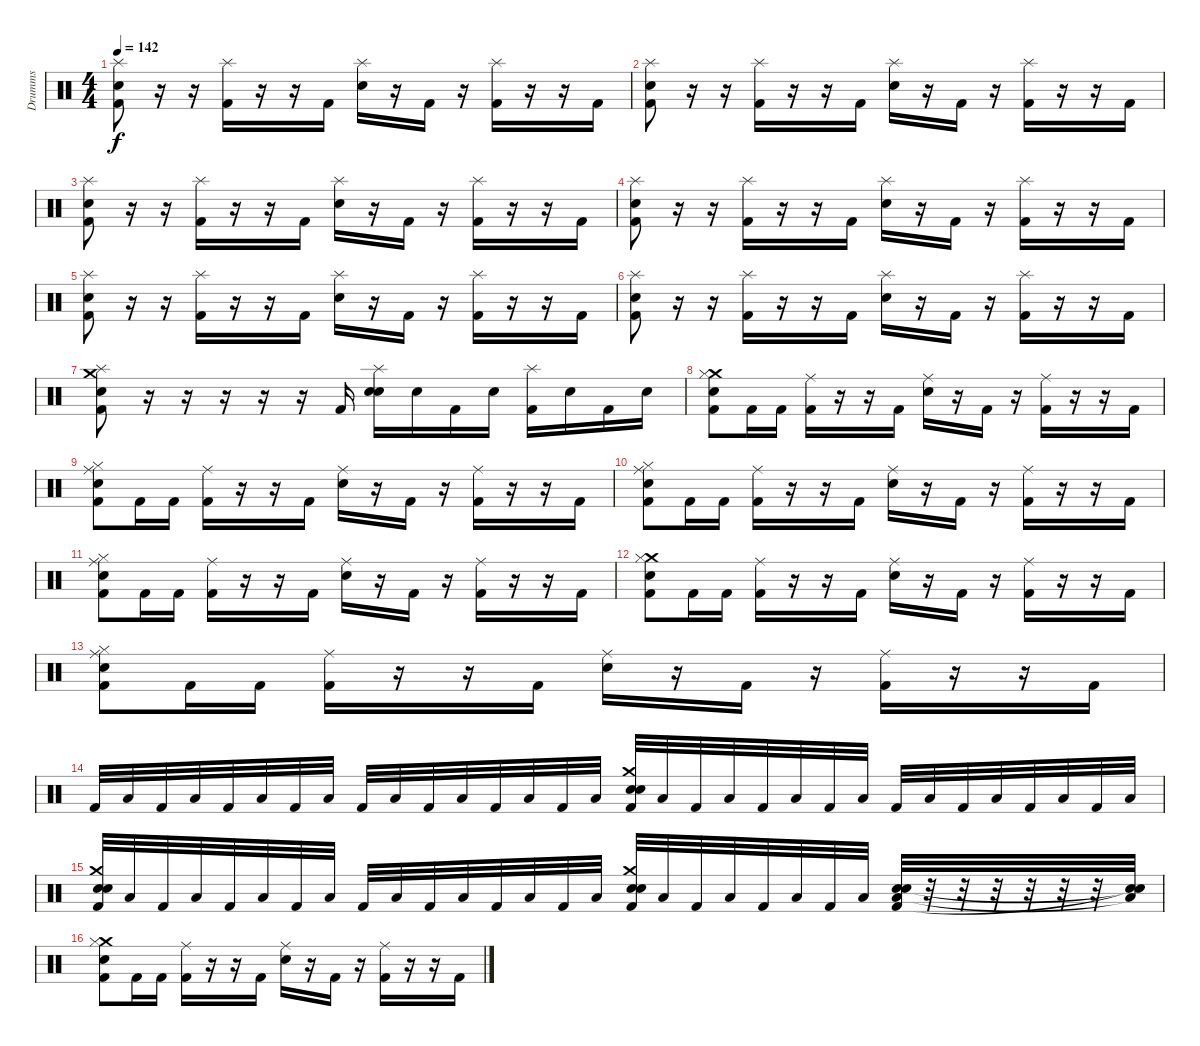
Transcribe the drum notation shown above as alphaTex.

\track ("Drumms" "Drumms") {instrument percussion}
\staff {score}
\articulation defaults
\ts (4 4)
\tempo 142
\clef neutral
\ks c
("Splash (hit)" "Kick (hit) 2" "Snare (hit) 2").8{dy f} r.16 r.16 ("Splash (hit)" "Kick (hit) 2").16 r.16 r.16 "Kick (hit) 2".16 ("Splash (hit)" "Snare (hit) 2").16 r.16 "Kick (hit) 2".16 r.16 ("Splash (hit)" "Kick (hit) 2").16 r.16 r.16 "Kick (hit) 2".16 |
("Splash (hit)" "Kick (hit) 2" "Snare (hit) 2").8 r.16 r.16 ("Splash (hit)" "Kick (hit) 2").16 r.16 r.16 "Kick (hit) 2".16 ("Splash (hit)" "Snare (hit) 2").16 r.16 "Kick (hit) 2".16 r.16 ("Splash (hit)" "Kick (hit) 2").16 r.16 r.16 "Kick (hit) 2".16 |
("Splash (hit)" "Kick (hit) 2" "Snare (hit) 2").8 r.16 r.16 ("Splash (hit)" "Kick (hit) 2").16 r.16 r.16 "Kick (hit) 2".16 ("Splash (hit)" "Snare (hit) 2").16 r.16 "Kick (hit) 2".16 r.16 ("Splash (hit)" "Kick (hit) 2").16 r.16 r.16 "Kick (hit) 2".16 |
("Splash (hit)" "Kick (hit) 2" "Snare (hit) 2").8 r.16 r.16 ("Splash (hit)" "Kick (hit) 2").16 r.16 r.16 "Kick (hit) 2".16 ("Splash (hit)" "Snare (hit) 2").16 r.16 "Kick (hit) 2".16 r.16 ("Splash (hit)" "Kick (hit) 2").16 r.16 r.16 "Kick (hit) 2".16 |
("Splash (hit)" "Kick (hit) 2" "Snare (hit) 2").8 r.16 r.16 ("Splash (hit)" "Kick (hit) 2").16 r.16 r.16 "Kick (hit) 2".16 ("Splash (hit)" "Snare (hit) 2").16 r.16 "Kick (hit) 2".16 r.16 ("Splash (hit)" "Kick (hit) 2").16 r.16 r.16 "Kick (hit) 2".16 |
("Splash (hit)" "Kick (hit) 2" "Snare (hit) 2").8 r.16 r.16 ("Splash (hit)" "Kick (hit) 2").16 r.16 r.16 "Kick (hit) 2".16 ("Splash (hit)" "Snare (hit) 2").16 r.16 "Kick (hit) 2".16 r.16 ("Splash (hit)" "Kick (hit) 2").16 r.16 r.16 "Kick (hit) 2".16 |
("Crash medium (hit)" "Splash (hit)" "Kick (hit) 2" "Snare (hit) 2").8 r.16 r.16 r.16 r.16 r.16 "Kick (hit) 2".16 ("Splash (hit)" "Electric Snare (hit)" "Snare (hit) 2").16 "Electric Snare (hit)".16 "Kick (hit) 2".16 "Electric Snare (hit)".16 ("Splash (hit)" "Kick (hit) 2").16 "Electric Snare (hit)".16 "Kick (hit) 2".16 "Electric Snare (hit)".16 |
("Crash medium (hit)" "Hi-Hat (closed)" "Kick (hit) 2" "Snare (hit) 2").8 "Kick (hit) 2".16 "Kick (hit) 2".16 ("Ride (middle)" "Kick (hit) 2").16 r.16 r.16 "Kick (hit) 2".16 ("Ride (middle)" "Snare (hit) 2").16 r.16 "Kick (hit) 2".16 r.16 ("Ride (middle)" "Kick (hit) 2").16 r.16 r.16 "Kick (hit) 2".16 |
("Ride (middle)" "Hi-Hat (closed)" "Kick (hit) 2" "Snare (hit) 2").8 "Kick (hit) 2".16 "Kick (hit) 2".16 ("Ride (middle)" "Kick (hit) 2").16 r.16 r.16 "Kick (hit) 2".16 ("Ride (middle)" "Snare (hit) 2").16 r.16 "Kick (hit) 2".16 r.16 ("Ride (middle)" "Kick (hit) 2").16 r.16 r.16 "Kick (hit) 2".16 |
("Ride (middle)" "Hi-Hat (closed)" "Kick (hit) 2" "Snare (hit) 2").8 "Kick (hit) 2".16 "Kick (hit) 2".16 ("Ride (middle)" "Kick (hit) 2").16 r.16 r.16 "Kick (hit) 2".16 ("Ride (middle)" "Snare (hit) 2").16 r.16 "Kick (hit) 2".16 r.16 ("Ride (middle)" "Kick (hit) 2").16 r.16 r.16 "Kick (hit) 2".16 |
("Ride (middle)" "Hi-Hat (closed)" "Kick (hit) 2" "Snare (hit) 2").8 "Kick (hit) 2".16 "Kick (hit) 2".16 ("Ride (middle)" "Kick (hit) 2").16 r.16 r.16 "Kick (hit) 2".16 ("Ride (middle)" "Snare (hit) 2").16 r.16 "Kick (hit) 2".16 r.16 ("Ride (middle)" "Kick (hit) 2").16 r.16 r.16 "Kick (hit) 2".16 |
("Crash medium (hit)" "Hi-Hat (closed)" "Kick (hit) 2" "Snare (hit) 2").8 "Kick (hit) 2".16 "Kick (hit) 2".16 ("Ride (middle)" "Kick (hit) 2").16 r.16 r.16 "Kick (hit) 2".16 ("Ride (middle)" "Snare (hit) 2").16 r.16 "Kick (hit) 2".16 r.16 ("Ride (middle)" "Kick (hit) 2").16 r.16 r.16 "Kick (hit) 2".16 |
("Ride (middle)" "Hi-Hat (closed)" "Kick (hit) 2" "Snare (hit) 2").8 "Kick (hit) 2".16 "Kick (hit) 2".16 ("Ride (middle)" "Kick (hit) 2").16 r.16 r.16 "Kick (hit) 2".16 ("Ride (middle)" "Snare (hit) 2").16 r.16 "Kick (hit) 2".16 r.16 ("Ride (middle)" "Kick (hit) 2").16 r.16 r.16 "Kick (hit) 2".16 |
"Kick (hit) 2".32 "Low Floor Tom (hit)".32 "Kick (hit) 2".32 "Low Floor Tom (hit)".32 "Kick (hit) 2".32 "Low Floor Tom (hit)".32 "Kick (hit) 2".32 "Low Floor Tom (hit)".32 "Kick (hit) 2".32 "Low Floor Tom (hit)".32 "Kick (hit) 2".32 "Low Floor Tom (hit)".32 "Kick (hit) 2".32 "Low Floor Tom (hit)".32 "Kick (hit) 2".32 "Low Floor Tom (hit)".32 ("Crash medium (hit)" "Snare (hit) 2" "Kick (hit) 2" "Electric Snare (hit)").32 "Low Floor Tom (hit)".32 "Kick (hit) 2".32 "Low Floor Tom (hit)".32 "Kick (hit) 2".32 "Low Floor Tom (hit)".32 "Kick (hit) 2".32 "Low Floor Tom (hit)".32 "Kick (hit) 2".32 "Low Floor Tom (hit)".32 "Kick (hit) 2".32 "Low Floor Tom (hit)".32 "Kick (hit) 2".32 "Low Floor Tom (hit)".32 "Kick (hit) 2".32 "Low Floor Tom (hit)".32 |
("Crash medium (hit)" "Snare (hit) 2" "Kick (hit) 2" "Electric Snare (hit)").32 "Low Floor Tom (hit)".32 "Kick (hit) 2".32 "Low Floor Tom (hit)".32 "Kick (hit) 2".32 "Low Floor Tom (hit)".32 "Kick (hit) 2".32 "Low Floor Tom (hit)".32 "Kick (hit) 2".32 "Low Floor Tom (hit)".32 "Kick (hit) 2".32 "Low Floor Tom (hit)".32 "Kick (hit) 2".32 "Low Floor Tom (hit)".32 "Kick (hit) 2".32 "Low Floor Tom (hit)".32 ("Crash medium (hit)" "Snare (hit) 2" "Kick (hit) 2" "Electric Snare (hit)").32 "Low Floor Tom (hit)".32 "Kick (hit) 2".32 "Low Floor Tom (hit)".32 "Kick (hit) 2".32 "Low Floor Tom (hit)".32 "Kick (hit) 2".32 "Low Floor Tom (hit)".32 ("Low Floor Tom (hit)" "Snare (hit) 2" "Kick (hit) 2" "Electric Snare (hit)").32 r.32 r.32 r.32 r.32 r.32 r.32 ("Low Floor Tom (hit)"{t} "Snare (hit)"{t} "Snare (hit)"{t}).32 |
("Crash medium (hit)" "Hi-Hat (closed)" "Kick (hit) 2" "Snare (hit) 2").8 "Kick (hit) 2".16 "Kick (hit) 2".16 ("Ride (middle)" "Kick (hit) 2").16 r.16 r.16 "Kick (hit) 2".16 ("Ride (middle)" "Snare (hit) 2").16 r.16 "Kick (hit) 2".16 r.16 ("Ride (middle)" "Kick (hit) 2").16 r.16 r.16 "Kick (hit) 2".16
